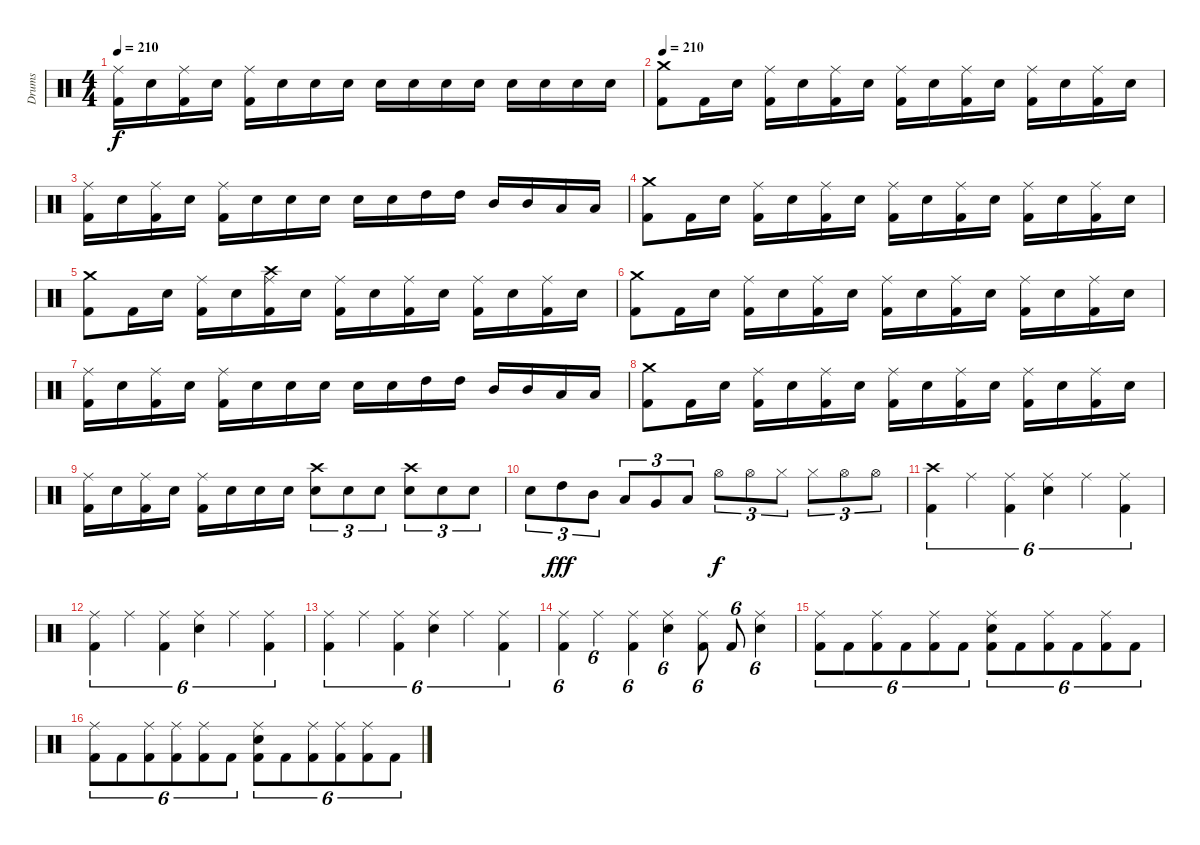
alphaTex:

\track ("Drums" "Drums") {instrument percussion}
\staff {score}
\articulation defaults
\ts (4 4)
\tempo 210
\clef neutral
\ks c
("Kick (hit) 2" "Ride (middle)").16{dy f} "Electric Snare (hit)".16 ("Kick (hit) 2" "Ride (middle)").16 "Electric Snare (hit)".16 ("Kick (hit) 2" "Ride (middle)").16 "Electric Snare (hit)".16 "Electric Snare (hit)".16 "Electric Snare (hit)".16 "Electric Snare (hit)".16 "Electric Snare (hit)".16 "Electric Snare (hit)".16 "Electric Snare (hit)".16 "Electric Snare (hit)".16 "Electric Snare (hit)".16 "Electric Snare (hit)".16 "Electric Snare (hit)".16 |
\tempo 210
("Kick (hit) 2" "Crash medium (hit)").8 "Kick (hit) 2".16 "Electric Snare (hit)".16 ("Kick (hit) 2" "Ride (middle)").16 "Electric Snare (hit)".16 ("Kick (hit) 2" "Ride (middle)").16 "Electric Snare (hit)".16 ("Kick (hit) 2" "Ride (middle)").16 "Electric Snare (hit)".16 ("Kick (hit) 2" "Ride (middle)").16 "Electric Snare (hit)".16 ("Kick (hit) 2" "Ride (middle)").16 "Electric Snare (hit)".16 ("Kick (hit) 2" "Ride (middle)").16 "Electric Snare (hit)".16 |
("Kick (hit) 2" "Ride (middle)").16 "Electric Snare (hit)".16 ("Kick (hit) 2" "Ride (middle)").16 "Electric Snare (hit)".16 ("Kick (hit) 2" "Ride (middle)").16 "Electric Snare (hit)".16 "Electric Snare (hit)".16 "Electric Snare (hit)".16 "Electric Snare (hit)".16 "Electric Snare (hit)".16 "High Tom (hit)".16 "High Tom (hit)".16 "Mid Tom (hit)".16 "Mid Tom (hit)".16 "Low Tom (hit)".16 "Low Tom (hit)".16 |
("Kick (hit) 2" "Crash medium (hit)").8 "Kick (hit) 2".16 "Electric Snare (hit)".16 ("Kick (hit) 2" "Ride (middle)").16 "Electric Snare (hit)".16 ("Kick (hit) 2" "Ride (middle)").16 "Electric Snare (hit)".16 ("Kick (hit) 2" "Ride (middle)").16 "Electric Snare (hit)".16 ("Kick (hit) 2" "Ride (middle)").16 "Electric Snare (hit)".16 ("Kick (hit) 2" "Ride (middle)").16 "Electric Snare (hit)".16 ("Kick (hit) 2" "Ride (middle)").16 "Electric Snare (hit)".16 |
("Kick (hit) 2" "Crash medium (hit)").8 "Kick (hit) 2".16 "Electric Snare (hit)".16 ("Kick (hit) 2" "Ride (middle)").16 "Electric Snare (hit)".16 ("Kick (hit) 2" "Ride (middle)" "Crash high (hit)").16 "Electric Snare (hit)".16 ("Kick (hit) 2" "Ride (middle)").16 "Electric Snare (hit)".16 ("Kick (hit) 2" "Ride (middle)").16 "Electric Snare (hit)".16 ("Kick (hit) 2" "Ride (middle)").16 "Electric Snare (hit)".16 ("Kick (hit) 2" "Ride (middle)").16 "Electric Snare (hit)".16 |
("Kick (hit) 2" "Crash medium (hit)").8 "Kick (hit) 2".16 "Electric Snare (hit)".16 ("Kick (hit) 2" "Ride (middle)").16 "Electric Snare (hit)".16 ("Kick (hit) 2" "Ride (middle)").16 "Electric Snare (hit)".16 ("Kick (hit) 2" "Ride (middle)").16 "Electric Snare (hit)".16 ("Kick (hit) 2" "Ride (middle)").16 "Electric Snare (hit)".16 ("Kick (hit) 2" "Ride (middle)").16 "Electric Snare (hit)".16 ("Kick (hit) 2" "Ride (middle)").16 "Electric Snare (hit)".16 |
("Kick (hit) 2" "Ride (middle)").16 "Electric Snare (hit)".16 ("Kick (hit) 2" "Ride (middle)").16 "Electric Snare (hit)".16 ("Kick (hit) 2" "Ride (middle)").16 "Electric Snare (hit)".16 "Electric Snare (hit)".16 "Electric Snare (hit)".16 "Electric Snare (hit)".16 "Electric Snare (hit)".16 "High Tom (hit)".16 "High Tom (hit)".16 "Mid Tom (hit)".16 "Mid Tom (hit)".16 "Low Tom (hit)".16 "Low Tom (hit)".16 |
("Kick (hit) 2" "Crash medium (hit)").8 "Kick (hit) 2".16 "Electric Snare (hit)".16 ("Kick (hit) 2" "Ride (middle)").16 "Electric Snare (hit)".16 ("Kick (hit) 2" "Ride (middle)").16 "Electric Snare (hit)".16 ("Kick (hit) 2" "Ride (middle)").16 "Electric Snare (hit)".16 ("Kick (hit) 2" "Ride (middle)").16 "Electric Snare (hit)".16 ("Kick (hit) 2" "Ride (middle)").16 "Electric Snare (hit)".16 ("Kick (hit) 2" "Ride (middle)").16 "Electric Snare (hit)".16 |
("Kick (hit) 2" "Ride (middle)").16 "Electric Snare (hit)".16 ("Kick (hit) 2" "Ride (middle)").16 "Electric Snare (hit)".16 ("Kick (hit) 2" "Ride (middle)").16 "Electric Snare (hit)".16 "Electric Snare (hit)".16 "Electric Snare (hit)".16 ("Crash high (hit)" "Electric Snare (hit)").8{tu (3 2)} "Electric Snare (hit)".8{tu (3 2)} "Electric Snare (hit)".8{tu (3 2)} ("Crash high (hit)" "Electric Snare (hit)").8{tu (3 2)} "Electric Snare (hit)".8{tu (3 2)} "Electric Snare (hit)".8{tu (3 2)} |
"Electric Snare (hit)".8{tu (3 2)} "High Tom (hit)".8{tu (3 2) dy fff} "Mid Tom (hit)".8{tu (3 2)} "Low Tom (hit)".8{tu (3 2)} "Very Low Tom (hit)".8{tu (3 2)} "Low Floor Tom (hit)".8{tu (3 2)} "Hi-Hat (open)".8{tu (3 2) dy f} "Hi-Hat (open)".8{tu (3 2)} "Hi-Hat (closed)".8{tu (3 2)} "Hi-Hat (closed)".8{tu (3 2)} "Hi-Hat (open)".8{tu (3 2)} "Hi-Hat (open)".8{tu (3 2)} |
("Kick (hit) 2" "Crash high (hit)").4{tu (6 4)} "Ride (middle)".4{tu (6 4)} ("Kick (hit) 2" "Ride (middle)").4{tu (6 4)} ("Snare (hit) 2" "Ride (middle)").4{tu (6 4)} "Ride (middle)".4{tu (6 4)} ("Kick (hit) 2" "Ride (middle)").4{tu (6 4)} |
("Kick (hit) 2" "Ride (middle)").4{tu (6 4)} "Ride (middle)".4{tu (6 4)} ("Kick (hit) 2" "Ride (middle)").4{tu (6 4)} ("Snare (hit) 2" "Ride (middle)").4{tu (6 4)} "Ride (middle)".4{tu (6 4)} ("Kick (hit) 2" "Ride (middle)").4{tu (6 4)} |
("Kick (hit) 2" "Ride (middle)").4{tu (6 4)} "Ride (middle)".4{tu (6 4)} ("Kick (hit) 2" "Ride (middle)").4{tu (6 4)} ("Snare (hit) 2" "Ride (middle)").4{tu (6 4)} "Ride (middle)".4{tu (6 4)} ("Kick (hit) 2" "Ride (middle)").4{tu (6 4)} |
("Kick (hit) 2" "Ride (middle)").4{tu (6 4)} "Ride (middle)".4{tu (6 4)} ("Kick (hit) 2" "Ride (middle)").4{tu (6 4)} ("Snare (hit) 2" "Ride (middle)").4{tu (6 4)} ("Kick (hit) 2" "Ride (middle)").8{tu (6 4)} "Kick (hit) 2".8{tu (6 4)} ("Snare (hit) 2" "Ride (middle)").4{tu (6 4)} |
("Kick (hit) 2" "Ride (middle)").8{tu (6 4)} "Kick (hit) 2".8{tu (6 4)} ("Kick (hit) 2" "Ride (middle)").8{tu (6 4)} "Kick (hit) 2".8{tu (6 4)} ("Kick (hit) 2" "Ride (middle)").8{tu (6 4)} "Kick (hit) 2".8{tu (6 4)} ("Kick (hit) 2" "Snare (hit) 2" "Ride (middle)").8{tu (6 4)} "Kick (hit) 2".8{tu (6 4)} ("Kick (hit) 2" "Ride (middle)").8{tu (6 4)} "Kick (hit) 2".8{tu (6 4)} ("Kick (hit) 2" "Ride (middle)").8{tu (6 4)} "Kick (hit) 2".8{tu (6 4)} |
("Kick (hit) 2" "Ride (middle)").8{tu (6 4)} "Kick (hit) 2".8{tu (6 4)} ("Kick (hit) 2" "Ride (middle)").8{tu (6 4)} ("Kick (hit) 2" "Ride (middle)").8{tu (6 4)} ("Kick (hit) 2" "Ride (middle)").8{tu (6 4)} "Kick (hit) 2".8{tu (6 4)} ("Kick (hit) 2" "Snare (hit) 2" "Ride (middle)").8{tu (6 4)} "Kick (hit) 2".8{tu (6 4)} ("Kick (hit) 2" "Ride (middle)").8{tu (6 4)} ("Kick (hit) 2" "Ride (middle)").8{tu (6 4)} ("Kick (hit) 2" "Ride (middle)").8{tu (6 4)} "Kick (hit) 2".8{tu (6 4)}
